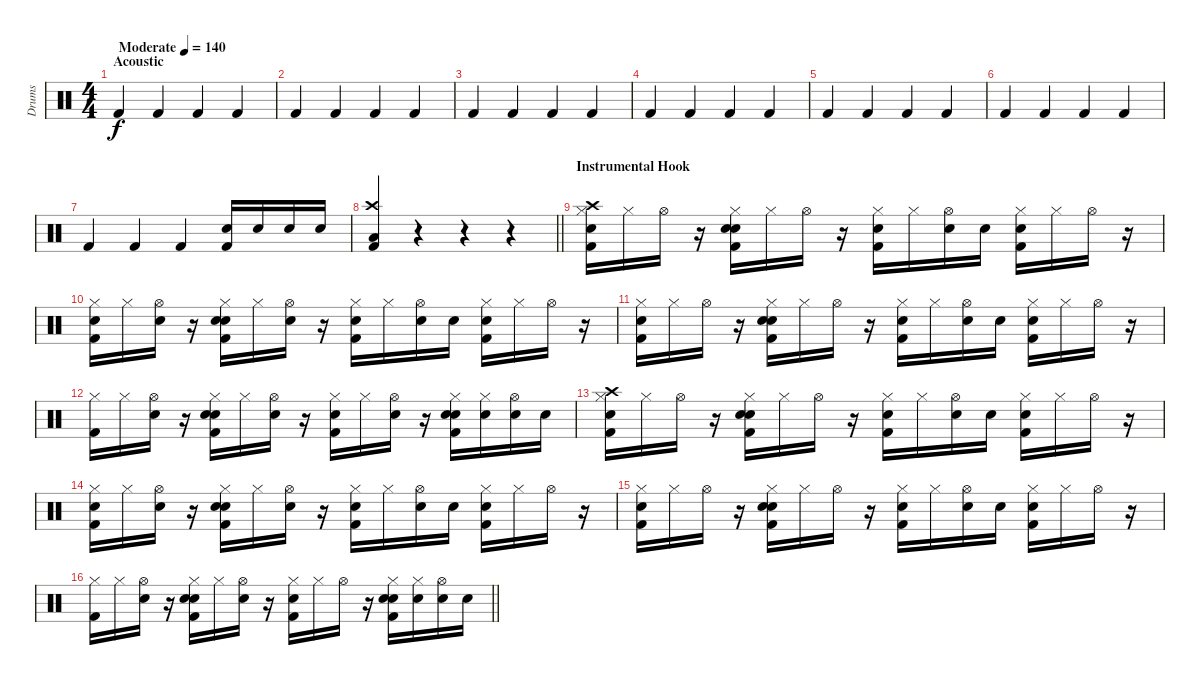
\track ("Drums" "Drums") {instrument percussion}
\staff {score}
\articulation defaults
\ts (4 4)
\section ("" "Acoustic")
\tempo (140 "Moderate")
\clef neutral
\ks c "Kick (hit) 2".4{dy f} "Kick (hit) 2".4 "Kick (hit) 2".4 "Kick (hit) 2".4
|
"Kick (hit) 2".4 "Kick (hit) 2".4 "Kick (hit) 2".4 "Kick (hit) 2".4 |
"Kick (hit) 2".4 "Kick (hit) 2".4 "Kick (hit) 2".4 "Kick (hit) 2".4 |
"Kick (hit) 2".4 "Kick (hit) 2".4 "Kick (hit) 2".4 "Kick (hit) 2".4 |
"Kick (hit) 2".4 "Kick (hit) 2".4 "Kick (hit) 2".4 "Kick (hit) 2".4 |
"Kick (hit) 2".4 "Kick (hit) 2".4 "Kick (hit) 2".4 "Kick (hit) 2".4 |
"Kick (hit) 2".4 "Kick (hit) 2".4 "Kick (hit) 2".4 ("Snare (hit) 2" "Kick (hit) 2").16 "Snare (hit) 2".16 "Snare (hit) 2".16 "Snare (hit) 2".16 |
\barLineRight lightlight
("Crash high (hit)" "Low Floor Tom (hit)" "Kick (hit) 2").4 r.4 r.4 r.4 |
\section ("" "Instrumental Hook")
("Crash high (hit)" "Hi-Hat (closed)" "Hand Clap (hit)" "Kick (hit) 2").16 "Hi-Hat (closed)".16 "Hi-Hat (open)".16 r.16 ("Hi-Hat (closed)" "Hand Clap (hit)" "Snare (hit) 2" "Kick (hit) 2").16 "Hi-Hat (closed)".16 "Hi-Hat (open)".16 r.16 ("Hi-Hat (closed)" "Hand Clap (hit)" "Kick (hit) 2").16 "Hi-Hat (closed)".16 ("Hi-Hat (open)" "Hand Clap (hit)").16 "Hand Clap (hit)".16 ("Hi-Hat (closed)" "Snare (hit) 2" "Kick (hit) 2").16 "Hi-Hat (closed)".16 "Hi-Hat (open)".16 r.16 |
("Hi-Hat (closed)" "Hand Clap (hit)" "Kick (hit) 2").16 "Hi-Hat (closed)".16 ("Hi-Hat (open)" "Hand Clap (hit)").16 r.16 ("Hi-Hat (closed)" "Hand Clap (hit)" "Snare (hit) 2" "Kick (hit) 2").16 "Hi-Hat (closed)".16 ("Hi-Hat (open)" "Hand Clap (hit)").16 r.16 ("Hi-Hat (closed)" "Hand Clap (hit)" "Kick (hit) 2").16 "Hi-Hat (closed)".16 ("Hi-Hat (open)" "Hand Clap (hit)").16 "Hand Clap (hit)".16 ("Hi-Hat (closed)" "Snare (hit) 2" "Kick (hit) 2").16 "Hi-Hat (closed)".16 "Hi-Hat (open)".16 r.16 |
("Hi-Hat (closed)" "Hand Clap (hit)" "Kick (hit) 2").16 "Hi-Hat (closed)".16 "Hi-Hat (open)".16 r.16 ("Hi-Hat (closed)" "Hand Clap (hit)" "Snare (hit) 2" "Kick (hit) 2").16 "Hi-Hat (closed)".16 "Hi-Hat (open)".16 r.16 ("Hi-Hat (closed)" "Hand Clap (hit)" "Kick (hit) 2").16 "Hi-Hat (closed)".16 ("Hi-Hat (open)" "Hand Clap (hit)").16 "Hand Clap (hit)".16 ("Hi-Hat (closed)" "Snare (hit) 2" "Kick (hit) 2").16 "Hi-Hat (closed)".16 "Hi-Hat (open)".16 r.16 |
("Hi-Hat (closed)" "Kick (hit) 2").16 "Hi-Hat (closed)".16 ("Hi-Hat (open)" "Hand Clap (hit)").16 r.16 ("Hi-Hat (closed)" "Hand Clap (hit)" "Snare (hit) 2" "Kick (hit) 2").16 "Hi-Hat (closed)".16 ("Hi-Hat (open)" "Hand Clap (hit)").16 r.16 ("Hi-Hat (closed)" "Hand Clap (hit)" "Kick (hit) 2").16 "Hi-Hat (closed)".16 ("Hi-Hat (open)" "Hand Clap (hit)").16 r.16 ("Hi-Hat (closed)" "Hand Clap (hit)" "Snare (hit) 2" "Kick (hit) 2").16 ("Hi-Hat (closed)" "Snare (hit) 2").16 ("Hi-Hat (open)" "Snare (hit) 2").16 "Snare (hit) 2".16 |
("Crash high (hit)" "Hi-Hat (closed)" "Hand Clap (hit)" "Kick (hit) 2").16 "Hi-Hat (closed)".16 "Hi-Hat (open)".16 r.16 ("Hi-Hat (closed)" "Hand Clap (hit)" "Snare (hit) 2" "Kick (hit) 2").16 "Hi-Hat (closed)".16 "Hi-Hat (open)".16 r.16 ("Hi-Hat (closed)" "Hand Clap (hit)" "Kick (hit) 2").16 "Hi-Hat (closed)".16 ("Hi-Hat (open)" "Hand Clap (hit)").16 "Hand Clap (hit)".16 ("Hi-Hat (closed)" "Snare (hit) 2" "Kick (hit) 2").16 "Hi-Hat (closed)".16 "Hi-Hat (open)".16 r.16 |
("Hi-Hat (closed)" "Hand Clap (hit)" "Kick (hit) 2").16 "Hi-Hat (closed)".16 ("Hi-Hat (open)" "Hand Clap (hit)").16 r.16 ("Hi-Hat (closed)" "Hand Clap (hit)" "Snare (hit) 2" "Kick (hit) 2").16 "Hi-Hat (closed)".16 ("Hi-Hat (open)" "Hand Clap (hit)").16 r.16 ("Hi-Hat (closed)" "Hand Clap (hit)" "Kick (hit) 2").16 "Hi-Hat (closed)".16 ("Hi-Hat (open)" "Hand Clap (hit)").16 "Hand Clap (hit)".16 ("Hi-Hat (closed)" "Snare (hit) 2" "Kick (hit) 2").16 "Hi-Hat (closed)".16 "Hi-Hat (open)".16 r.16 |
("Hi-Hat (closed)" "Hand Clap (hit)" "Kick (hit) 2").16 "Hi-Hat (closed)".16 "Hi-Hat (open)".16 r.16 ("Hi-Hat (closed)" "Hand Clap (hit)" "Snare (hit) 2" "Kick (hit) 2").16 "Hi-Hat (closed)".16 "Hi-Hat (open)".16 r.16 ("Hi-Hat (closed)" "Hand Clap (hit)" "Kick (hit) 2").16 "Hi-Hat (closed)".16 ("Hi-Hat (open)" "Hand Clap (hit)").16 "Hand Clap (hit)".16 ("Hi-Hat (closed)" "Snare (hit) 2" "Kick (hit) 2").16 "Hi-Hat (closed)".16 "Hi-Hat (open)".16 r.16 |
\barLineRight lightlight
("Hi-Hat (closed)" "Kick (hit) 2").16 "Hi-Hat (closed)".16 ("Hi-Hat (open)" "Hand Clap (hit)").16 r.16 ("Hi-Hat (closed)" "Hand Clap (hit)" "Snare (hit) 2" "Kick (hit) 2").16 "Hi-Hat (closed)".16 ("Hi-Hat (open)" "Hand Clap (hit)").16 r.16 ("Hi-Hat (closed)" "Hand Clap (hit)" "Kick (hit) 2").16 "Hi-Hat (closed)".16 "Hi-Hat (open)".16 r.16 ("Hi-Hat (closed)" "Hand Clap (hit)" "Snare (hit) 2" "Kick (hit) 2").16 ("Hi-Hat (closed)" "Snare (hit) 2").16 ("Hi-Hat (open)" "Snare (hit) 2").16 "Snare (hit) 2".16
